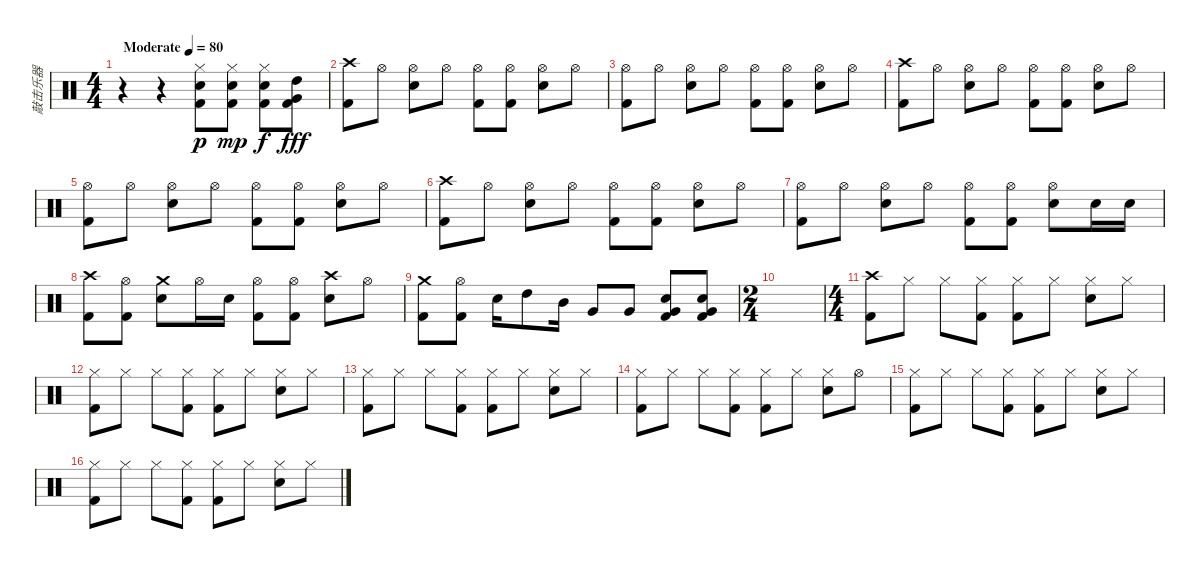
\track ("敲击乐器" "敲击乐器") {instrument percussion}
\staff {score}
\articulation defaults
\ts (4 4)
\tempo (80 "Moderate")
\clef neutral
\ks c
r.4{dy p} r.4 ("Hi-Hat (closed)" "Electric Snare (hit)" "Kick (hit) 2").8 ("Hi-Hat (closed)" "Electric Snare (hit)" "Kick (hit) 2").8{dy mp} ("Hi-Hat (closed)" "Electric Snare (hit)" "Kick (hit) 2").8{dy f} ("High Tom (hit)" "Very Low Tom (hit)" "Kick (hit) 2").8{dy fff} |
("Crash high (hit)" "Kick (hit) 2").8 "Hi-Hat (open)".8 ("Hi-Hat (open)" "Electric Snare (hit)").8 "Hi-Hat (open)".8 ("Hi-Hat (open)" "Kick (hit) 2").8 ("Hi-Hat (open)" "Kick (hit) 2").8 ("Hi-Hat (open)" "Electric Snare (hit)").8 "Hi-Hat (open)".8 |
("Hi-Hat (open)" "Kick (hit) 2").8 "Hi-Hat (open)".8 ("Hi-Hat (open)" "Electric Snare (hit)").8 "Hi-Hat (open)".8 ("Hi-Hat (open)" "Kick (hit) 2").8 ("Hi-Hat (open)" "Kick (hit) 2").8 ("Hi-Hat (open)" "Electric Snare (hit)").8 "Hi-Hat (open)".8 |
("Crash high (hit)" "Kick (hit) 2").8 "Hi-Hat (open)".8 ("Hi-Hat (open)" "Electric Snare (hit)").8 "Hi-Hat (open)".8 ("Hi-Hat (open)" "Kick (hit) 2").8 ("Hi-Hat (open)" "Kick (hit) 2").8 ("Hi-Hat (open)" "Electric Snare (hit)").8 "Hi-Hat (open)".8 |
("Hi-Hat (open)" "Kick (hit) 2").8 "Hi-Hat (open)".8 ("Hi-Hat (open)" "Electric Snare (hit)").8 "Hi-Hat (open)".8 ("Hi-Hat (open)" "Kick (hit) 2").8 ("Hi-Hat (open)" "Kick (hit) 2").8 ("Hi-Hat (open)" "Electric Snare (hit)").8 "Hi-Hat (open)".8 |
("Crash high (hit)" "Kick (hit) 2").8 "Hi-Hat (open)".8 ("Hi-Hat (open)" "Electric Snare (hit)").8 "Hi-Hat (open)".8 ("Hi-Hat (open)" "Kick (hit) 2").8 ("Hi-Hat (open)" "Kick (hit) 2").8 ("Hi-Hat (open)" "Electric Snare (hit)").8 "Hi-Hat (open)".8 |
("Hi-Hat (open)" "Kick (hit) 2").8 "Hi-Hat (open)".8 ("Hi-Hat (open)" "Electric Snare (hit)").8 "Hi-Hat (open)".8 ("Hi-Hat (open)" "Kick (hit) 2").8 ("Hi-Hat (open)" "Kick (hit) 2").8 ("Hi-Hat (open)" "Electric Snare (hit)").8 "Electric Snare (hit)".16 "Electric Snare (hit)".16 |
("Crash high (hit)" "Kick (hit) 2").8 ("Hi-Hat (open)" "Kick (hit) 2").8 ("Crash medium (hit)" "Electric Snare (hit)").8 "Hi-Hat (open)".16 "Electric Snare (hit)".16 ("Hi-Hat (open)" "Kick (hit) 2").8 ("Hi-Hat (open)" "Kick (hit) 2").8 ("Crash high (hit)" "Electric Snare (hit)").8 "Hi-Hat (open)".8 |
("Crash medium (hit)" "Kick (hit) 2").8 ("Hi-Hat (open)" "Kick (hit) 2").8 "Electric Snare (hit)".16 "High Tom (hit)".8 "Mid Tom (hit)".16 "Very Low Tom (hit)".8 "Very Low Tom (hit)".8 ("Electric Snare (hit)" "Very Low Tom (hit)" "Kick (hit) 2").8 ("Electric Snare (hit)" "Very Low Tom (hit)" "Kick (hit) 2").8 |
\ts (2 4)
|
\ts (4 4)
("Crash high (hit)" "Kick (hit) 2").8 "Hi-Hat (closed)".8 "Hi-Hat (closed)".8 ("Hi-Hat (closed)" "Kick (hit) 2").8 ("Hi-Hat (closed)" "Kick (hit) 2").8 "Hi-Hat (closed)".8 ("Hi-Hat (closed)" "Electric Snare (hit)").8 "Hi-Hat (closed)".8 |
("Hi-Hat (closed)" "Kick (hit) 2").8 "Hi-Hat (closed)".8 "Hi-Hat (closed)".8 ("Hi-Hat (closed)" "Kick (hit) 2").8 ("Hi-Hat (closed)" "Kick (hit) 2").8 "Hi-Hat (closed)".8 ("Hi-Hat (closed)" "Electric Snare (hit)").8 "Hi-Hat (closed)".8 |
("Hi-Hat (closed)" "Kick (hit) 2").8 "Hi-Hat (closed)".8 "Hi-Hat (closed)".8 ("Hi-Hat (closed)" "Kick (hit) 2").8 ("Hi-Hat (closed)" "Kick (hit) 2").8 "Hi-Hat (closed)".8 ("Hi-Hat (closed)" "Electric Snare (hit)").8 "Hi-Hat (closed)".8 |
("Hi-Hat (closed)" "Kick (hit) 2").8 "Hi-Hat (closed)".8 "Hi-Hat (closed)".8 ("Hi-Hat (closed)" "Kick (hit) 2").8 ("Hi-Hat (closed)" "Kick (hit) 2").8 "Hi-Hat (closed)".8 ("Hi-Hat (closed)" "Electric Snare (hit)").8 "Hi-Hat (open)".8 |
("Hi-Hat (closed)" "Kick (hit) 2").8 "Hi-Hat (closed)".8 "Hi-Hat (closed)".8 ("Hi-Hat (closed)" "Kick (hit) 2").8 ("Hi-Hat (closed)" "Kick (hit) 2").8 "Hi-Hat (closed)".8 ("Hi-Hat (closed)" "Electric Snare (hit)").8 "Hi-Hat (closed)".8 |
("Hi-Hat (closed)" "Kick (hit) 2").8 "Hi-Hat (closed)".8 "Hi-Hat (closed)".8 ("Hi-Hat (closed)" "Kick (hit) 2").8 ("Hi-Hat (closed)" "Kick (hit) 2").8 "Hi-Hat (closed)".8 ("Hi-Hat (closed)" "Electric Snare (hit)").8 "Hi-Hat (closed)".8
